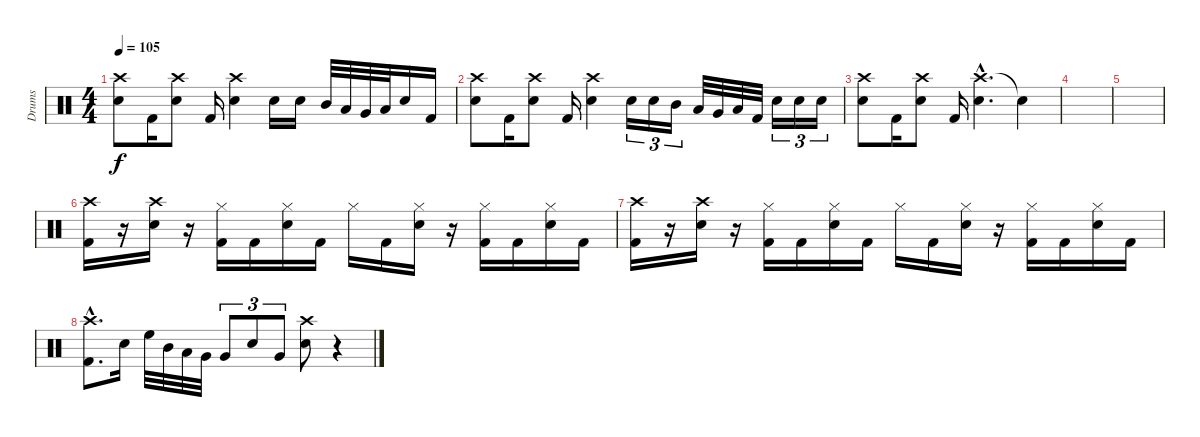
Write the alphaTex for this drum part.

\track ("Drums" "Drums") {instrument percussion}
\staff {score}
\articulation defaults
\ts (4 4)
\tempo 105
\clef neutral
\ks c
("Crash high (hit)" "Snare (hit) 2").8{dy f} "Kick (hit) 2".16 ("Crash high (hit)" "Snare (hit) 2").8 "Kick (hit) 2".16 ("Crash high (hit)" "Snare (hit) 2").4 "Snare (hit) 2".16 "Snare (hit) 2".16 "Mid Tom (hit)".32 "Low Tom (hit)".32 "Very Low Tom (hit)".32 "Low Floor Tom (hit)".32 "Snare (hit) 2".16 "Kick (hit) 2".16 |
("Crash high (hit)" "Snare (hit) 2").8 "Kick (hit) 2".16 ("Crash high (hit)" "Snare (hit) 2").8 "Kick (hit) 2".16 ("Crash high (hit)" "Snare (hit) 2").4 "Snare (hit) 2".16{tu (3 2)} "Snare (hit) 2".16{tu (3 2)} "Mid Tom (hit)".16{tu (3 2)} "Low Tom (hit)".32 "Very Low Tom (hit)".32 "Low Floor Tom (hit)".32 "Kick (hit) 2".32 "Snare (hit) 2".16{tu (3 2)} "Snare (hit) 2".16{tu (3 2)} "Snare (hit) 2".16{tu (3 2)} |
("Crash high (hit)" "Snare (hit) 2").8 "Kick (hit) 2".16 ("Crash high (hit)" "Snare (hit) 2").8 "Kick (hit) 2".16 ("Crash high (hit)"{hac} "Snare (hit) 2"{hac}).4{d} "Snare (hit)"{t}.4 |
|
|
("Crash high (hit)" "Kick (hit) 2").16 r.16 ("Crash high (hit)" "Snare (hit) 2").16 r.16 ("Hi-Hat (closed)" "Kick (hit) 2").16 "Kick (hit) 2".16 ("Hi-Hat (closed)" "Snare (hit) 2").16 "Kick (hit) 2".16 "Hi-Hat (closed)".16 "Kick (hit) 2".16 ("Hi-Hat (closed)" "Snare (hit) 2").16 r.16 ("Hi-Hat (closed)" "Kick (hit) 2").16 "Kick (hit) 2".16 ("Hi-Hat (closed)" "Snare (hit) 2").16 "Kick (hit) 2".16 |
("Crash high (hit)" "Kick (hit) 2").16 r.16 ("Crash high (hit)" "Snare (hit) 2").16 r.16 ("Hi-Hat (closed)" "Kick (hit) 2").16 "Kick (hit) 2".16 ("Hi-Hat (closed)" "Snare (hit) 2").16 "Kick (hit) 2".16 "Hi-Hat (closed)".16 "Kick (hit) 2".16 ("Hi-Hat (closed)" "Snare (hit) 2").16 r.16 ("Hi-Hat (closed)" "Kick (hit) 2").16 "Kick (hit) 2".16 ("Hi-Hat (closed)" "Snare (hit) 2").16 "Kick (hit) 2".16 |
("Crash high (hit)"{hac} "Kick (hit) 2"{hac}).8{d} "Snare (hit) 2".16 "High Floor Tom (hit)".32 "Mid Tom (hit)".32 "Low Tom (hit)".32 "Very Low Tom (hit)".32 "Very Low Tom (hit)".8{tu (3 2)} "Snare (hit) 2".8{tu (3 2)} "Very Low Tom (hit)".8{tu (3 2)} ("Crash high (hit)" "Snare (hit) 2").8 r.4
